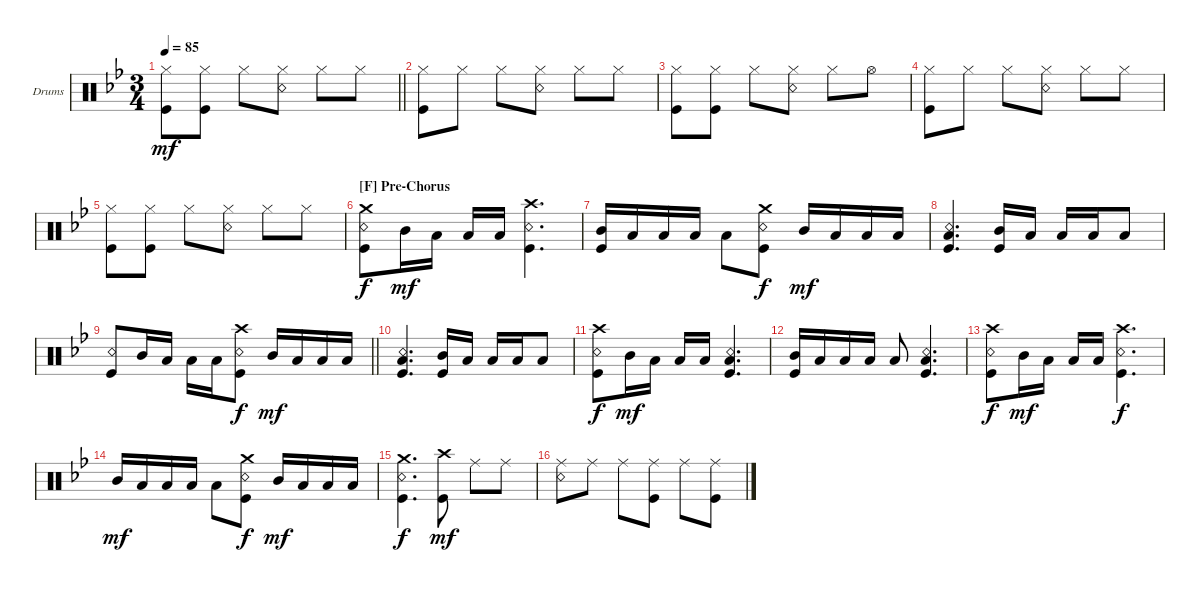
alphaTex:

\bracketExtendMode groupsimilarinstruments
\firstSystemTrackNameOrientation horizontal
\otherSystemsTrackNameOrientation horizontal
\track ("Drums" "Drums") {instrument percussion}
\staff {score}
\articulation defaults
\ts (3 4)
\tempo 85
\clef neutral
\scale
0.333333
\barLineRight lightlight
\ks bb
("Kick (hit)" "Hi-Hat (closed)").8{dy mf} ("Hi-Hat (closed)" "Kick (hit)").8 "Hi-Hat (closed)".8 ("Snare (rim shot)" "Hi-Hat (closed)").8 "Hi-Hat (closed)".8 "Hi-Hat (closed)".8 |
\scale
0.333333 ("Kick (hit)" "Hi-Hat (closed)").8 "Hi-Hat (closed)".8 "Hi-Hat (closed)".8 ("Snare (rim shot)" "Hi-Hat (closed)").8 "Hi-Hat (closed)".8 "Hi-Hat (closed)".8 |
\scale
0.333333 ("Kick (hit)" "Hi-Hat (closed)").8 ("Hi-Hat (closed)" "Kick (hit)").8 "Hi-Hat (closed)".8 ("Snare (rim shot)" "Hi-Hat (closed)").8 "Hi-Hat (closed)".8 "Hi-Hat (open)".8 |
\scale
0.333333 ("Kick (hit)" "Hi-Hat (closed)").8 "Hi-Hat (closed)".8 "Hi-Hat (closed)".8 ("Snare (rim shot)" "Hi-Hat (closed)").8 "Hi-Hat (closed)".8 "Hi-Hat (closed)".8 |
("Kick (hit)" "Hi-Hat (closed)").8 ("Hi-Hat (closed)" "Kick (hit)").8 "Hi-Hat (closed)".8 ("Snare (rim shot)" "Hi-Hat (closed)").8 "Hi-Hat (closed)".8 "Hi-Hat (closed)".8 |
\section ("F" "Pre-Chorus")
\scale
0.333333 ("Kick (hit)" "Snare (rim shot)" "Crash medium (hit)").8{dy f} "Mid Tom (hit)".16{dy mf} "Low Tom (hit)".16 "Low Tom (hit)".16 "Low Tom (hit)".16 ("Snare (rim shot)" "Kick (hit)" "Crash high (hit)").4{d} |
\scale
0.333333 ("Mid Tom (hit)" "Kick (hit)").16 "Low Tom (hit)".16 "Low Tom (hit)".16 "Low Tom (hit)".16 "Low Tom (hit)".8 ("Kick (hit)" "Snare (rim shot)" "Crash medium (hit)").8{dy f} "Mid Tom (hit)".16{dy mf} "Low Tom (hit)".16 "Low Tom (hit)".16 "Low Tom (hit)".16 |
\scale
0.333333 ("Kick (hit)" "Snare (rim shot)" "Low Tom (hit)").4{d} ("Mid Tom (hit)" "Kick (hit)").16 "Low Tom (hit)".16 "Low Tom (hit)".16 "Low Tom (hit)".16 "Low Tom (hit)".8 |
\scale
0.333333
\barLineRight lightlight
("Kick (hit)" "Snare (rim shot)").8 "Mid Tom (hit)".16 "Low Tom (hit)".16 "Low Tom (hit)".16 "Low Tom (hit)".16 ("Kick (hit)" "Crash high (hit)" "Snare (rim shot)").8{dy f} "Mid Tom (hit)".16{dy mf} "Low Tom (hit)".16 "Low Tom (hit)".16 "Low Tom (hit)".16 |
\scale
0.333333 ("Kick (hit)" "Snare (rim shot)" "Low Tom (hit)").4{d} ("Mid Tom (hit)" "Kick (hit)").16 "Low Tom (hit)".16 "Low Tom (hit)".16 "Low Tom (hit)".16 "Low Tom (hit)".8 |
\scale
0.333333 ("Kick (hit)" "Snare (rim shot)" "Crash high (hit)").8{dy f} "Mid Tom (hit)".16{dy mf} "Low Tom (hit)".16 "Low Tom (hit)".16 "Low Tom (hit)".16 ("Kick (hit)" "Low Tom (hit)" "Snare (rim shot)").4{d} |
\scale
0.333333 ("Kick (hit)" "Mid Tom (hit)").16 "Low Tom (hit)".16 "Low Tom (hit)".16 "Low Tom (hit)".16 "Low Tom (hit)".8 ("Snare (rim shot)" "Kick (hit)" "Low Tom (hit)").4{d} |
\scale
0.333333 ("Kick (hit)" "Crash high (hit)" "Snare (rim shot)").8{dy f} "Mid Tom (hit)".16{dy mf} "Low Tom (hit)".16 "Low Tom (hit)".16 "Low Tom (hit)".16 ("Snare (rim shot)" "Kick (hit)" "Crash high (hit)").4{d dy f} |
\scale
0.333333 "Mid Tom (hit)".16{dy mf} "Low Tom (hit)".16 "Low Tom (hit)".16 "Low Tom (hit)".16 "Low Tom (hit)".8 ("Kick (hit)" "Snare (rim shot)" "Crash medium (hit)").8{dy f} "Mid Tom (hit)".16{dy mf} "Low Tom (hit)".16 "Low Tom (hit)".16 "Low Tom (hit)".16 |
\scale
0.333333 ("Kick (hit)" "Snare (rim shot)" "Crash medium (hit)").4{d dy f} ("Crash high (hit)" "Kick (hit)").8{dy mf} "Ride (middle)".8 "Ride (middle)".8 |
\scale
0.333333 ("Ride (middle)" "Snare (rim shot)").8 "Ride (middle)".8 "Ride (middle)".8 ("Ride (middle)" "Kick (hit)").8 "Ride (middle)".8 ("Ride (middle)" "Kick (hit)").8
